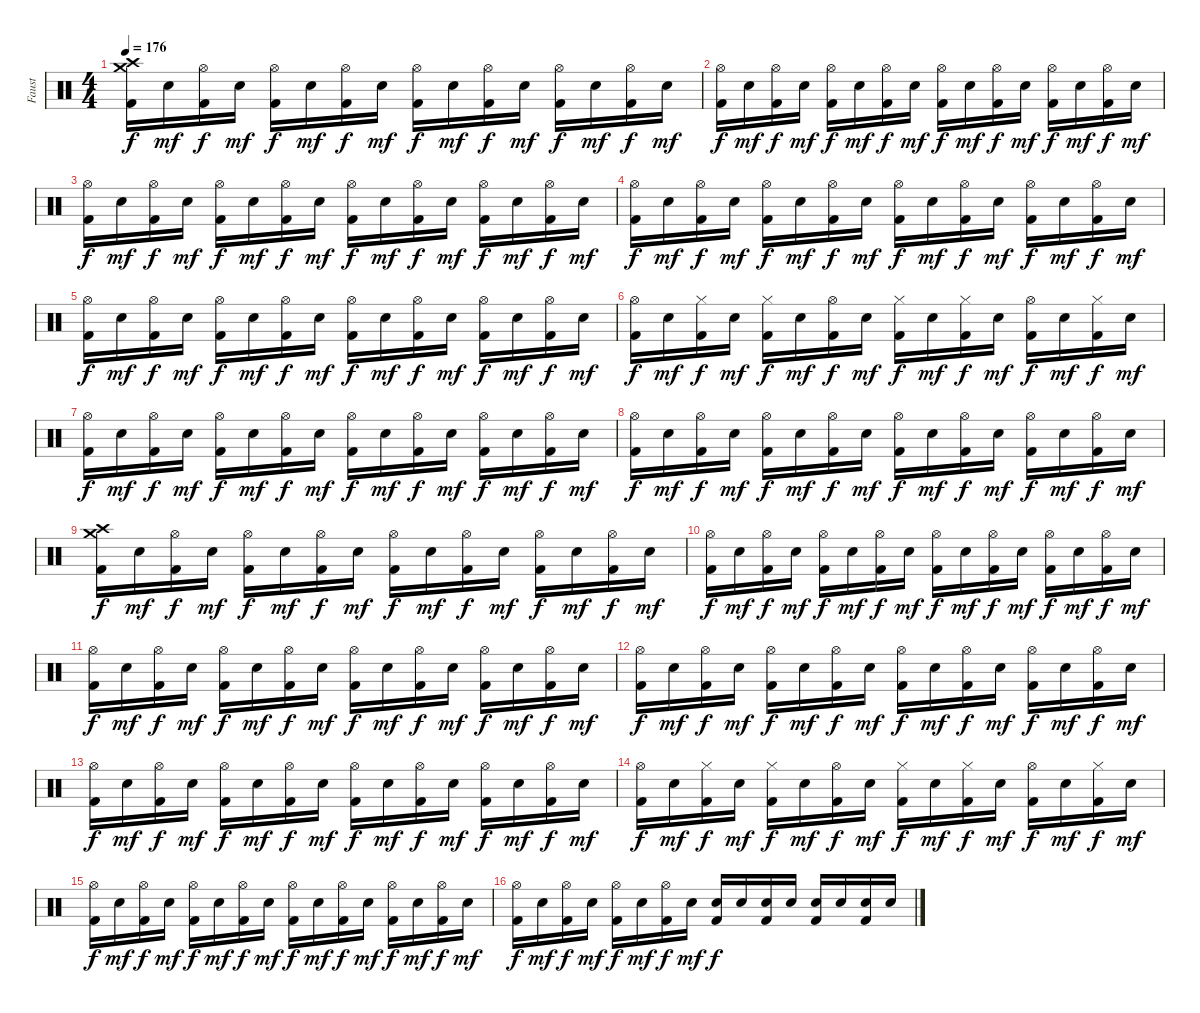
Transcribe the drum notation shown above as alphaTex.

\track ("Faust" "Faust") {instrument percussion}
\staff {score}
\articulation defaults
\ts (4 4)
\tempo 176
\clef neutral
\ks c
("Crash high (hit)" "Crash medium (hit)" "Kick (hit) 2").16{dy f} "Electric Snare (hit)".16{dy mf} ("Hi-Hat (open)" "Kick (hit) 2").16{dy f} "Electric Snare (hit)".16{dy mf} ("Hi-Hat (open)" "Kick (hit) 2").16{dy f} "Electric Snare (hit)".16{dy mf} ("Hi-Hat (open)" "Kick (hit) 2").16{dy f} "Electric Snare (hit)".16{dy mf} ("Hi-Hat (open)" "Kick (hit) 2").16{dy f} "Electric Snare (hit)".16{dy mf} ("Hi-Hat (open)" "Kick (hit) 2").16{dy f} "Electric Snare (hit)".16{dy mf} ("Hi-Hat (open)" "Kick (hit) 2").16{dy f} "Electric Snare (hit)".16{dy mf} ("Hi-Hat (open)" "Kick (hit) 2").16{dy f} "Electric Snare (hit)".16{dy mf} |
("Hi-Hat (open)" "Kick (hit) 2").16{dy f} "Electric Snare (hit)".16{dy mf} ("Hi-Hat (open)" "Kick (hit) 2").16{dy f} "Electric Snare (hit)".16{dy mf} ("Hi-Hat (open)" "Kick (hit) 2").16{dy f} "Electric Snare (hit)".16{dy mf} ("Hi-Hat (open)" "Kick (hit) 2").16{dy f} "Electric Snare (hit)".16{dy mf} ("Hi-Hat (open)" "Kick (hit) 2").16{dy f} "Electric Snare (hit)".16{dy mf} ("Hi-Hat (open)" "Kick (hit) 2").16{dy f} "Electric Snare (hit)".16{dy mf} ("Hi-Hat (open)" "Kick (hit) 2").16{dy f} "Electric Snare (hit)".16{dy mf} ("Hi-Hat (open)" "Kick (hit) 2").16{dy f} "Electric Snare (hit)".16{dy mf} |
("Hi-Hat (open)" "Kick (hit) 2").16{dy f} "Electric Snare (hit)".16{dy mf} ("Hi-Hat (open)" "Kick (hit) 2").16{dy f} "Electric Snare (hit)".16{dy mf} ("Hi-Hat (open)" "Kick (hit) 2").16{dy f} "Electric Snare (hit)".16{dy mf} ("Hi-Hat (open)" "Kick (hit) 2").16{dy f} "Electric Snare (hit)".16{dy mf} ("Hi-Hat (open)" "Kick (hit) 2").16{dy f} "Electric Snare (hit)".16{dy mf} ("Hi-Hat (open)" "Kick (hit) 2").16{dy f} "Electric Snare (hit)".16{dy mf} ("Hi-Hat (open)" "Kick (hit) 2").16{dy f} "Electric Snare (hit)".16{dy mf} ("Hi-Hat (open)" "Kick (hit) 2").16{dy f} "Electric Snare (hit)".16{dy mf} |
("Hi-Hat (open)" "Kick (hit) 2").16{dy f} "Electric Snare (hit)".16{dy mf} ("Hi-Hat (open)" "Kick (hit) 2").16{dy f} "Electric Snare (hit)".16{dy mf} ("Hi-Hat (open)" "Kick (hit) 2").16{dy f} "Electric Snare (hit)".16{dy mf} ("Hi-Hat (open)" "Kick (hit) 2").16{dy f} "Electric Snare (hit)".16{dy mf} ("Hi-Hat (open)" "Kick (hit) 2").16{dy f} "Electric Snare (hit)".16{dy mf} ("Hi-Hat (open)" "Kick (hit) 2").16{dy f} "Electric Snare (hit)".16{dy mf} ("Hi-Hat (open)" "Kick (hit) 2").16{dy f} "Electric Snare (hit)".16{dy mf} ("Hi-Hat (open)" "Kick (hit) 2").16{dy f} "Electric Snare (hit)".16{dy mf} |
("Hi-Hat (open)" "Kick (hit) 2").16{dy f} "Electric Snare (hit)".16{dy mf} ("Hi-Hat (open)" "Kick (hit) 2").16{dy f} "Electric Snare (hit)".16{dy mf} ("Hi-Hat (open)" "Kick (hit) 2").16{dy f} "Electric Snare (hit)".16{dy mf} ("Hi-Hat (open)" "Kick (hit) 2").16{dy f} "Electric Snare (hit)".16{dy mf} ("Hi-Hat (open)" "Kick (hit) 2").16{dy f} "Electric Snare (hit)".16{dy mf} ("Hi-Hat (open)" "Kick (hit) 2").16{dy f} "Electric Snare (hit)".16{dy mf} ("Hi-Hat (open)" "Kick (hit) 2").16{dy f} "Electric Snare (hit)".16{dy mf} ("Hi-Hat (open)" "Kick (hit) 2").16{dy f} "Electric Snare (hit)".16{dy mf} |
("Hi-Hat (open)" "Kick (hit) 2").16{dy f} "Electric Snare (hit)".16{dy mf} ("Hi-Hat (closed)" "Kick (hit) 2").16{dy f} "Electric Snare (hit)".16{dy mf} ("Hi-Hat (closed)" "Kick (hit) 2").16{dy f} "Electric Snare (hit)".16{dy mf} ("Hi-Hat (open)" "Kick (hit) 2").16{dy f} "Electric Snare (hit)".16{dy mf} ("Hi-Hat (closed)" "Kick (hit) 2").16{dy f} "Electric Snare (hit)".16{dy mf} ("Hi-Hat (closed)" "Kick (hit) 2").16{dy f} "Electric Snare (hit)".16{dy mf} ("Hi-Hat (open)" "Kick (hit) 2").16{dy f} "Electric Snare (hit)".16{dy mf} ("Hi-Hat (closed)" "Kick (hit) 2").16{dy f} "Electric Snare (hit)".16{dy mf} |
("Hi-Hat (open)" "Kick (hit) 2").16{dy f} "Electric Snare (hit)".16{dy mf} ("Hi-Hat (open)" "Kick (hit) 2").16{dy f} "Electric Snare (hit)".16{dy mf} ("Hi-Hat (open)" "Kick (hit) 2").16{dy f} "Electric Snare (hit)".16{dy mf} ("Hi-Hat (open)" "Kick (hit) 2").16{dy f} "Electric Snare (hit)".16{dy mf} ("Hi-Hat (open)" "Kick (hit) 2").16{dy f} "Electric Snare (hit)".16{dy mf} ("Hi-Hat (open)" "Kick (hit) 2").16{dy f} "Electric Snare (hit)".16{dy mf} ("Hi-Hat (open)" "Kick (hit) 2").16{dy f} "Electric Snare (hit)".16{dy mf} ("Hi-Hat (open)" "Kick (hit) 2").16{dy f} "Electric Snare (hit)".16{dy mf} |
("Hi-Hat (open)" "Kick (hit) 2").16{dy f} "Electric Snare (hit)".16{dy mf} ("Hi-Hat (open)" "Kick (hit) 2").16{dy f} "Electric Snare (hit)".16{dy mf} ("Hi-Hat (open)" "Kick (hit) 2").16{dy f} "Electric Snare (hit)".16{dy mf} ("Hi-Hat (open)" "Kick (hit) 2").16{dy f} "Electric Snare (hit)".16{dy mf} ("Hi-Hat (open)" "Kick (hit) 2").16{dy f} "Electric Snare (hit)".16{dy mf} ("Hi-Hat (open)" "Kick (hit) 2").16{dy f} "Electric Snare (hit)".16{dy mf} ("Hi-Hat (open)" "Kick (hit) 2").16{dy f} "Electric Snare (hit)".16{dy mf} ("Hi-Hat (open)" "Kick (hit) 2").16{dy f} "Electric Snare (hit)".16{dy mf} |
("Crash high (hit)" "Crash medium (hit)" "Kick (hit) 2").16{dy f} "Electric Snare (hit)".16{dy mf} ("Hi-Hat (open)" "Kick (hit) 2").16{dy f} "Electric Snare (hit)".16{dy mf} ("Hi-Hat (open)" "Kick (hit) 2").16{dy f} "Electric Snare (hit)".16{dy mf} ("Hi-Hat (open)" "Kick (hit) 2").16{dy f} "Electric Snare (hit)".16{dy mf} ("Hi-Hat (open)" "Kick (hit) 2").16{dy f} "Electric Snare (hit)".16{dy mf} ("Hi-Hat (open)" "Kick (hit) 2").16{dy f} "Electric Snare (hit)".16{dy mf} ("Hi-Hat (open)" "Kick (hit) 2").16{dy f} "Electric Snare (hit)".16{dy mf} ("Hi-Hat (open)" "Kick (hit) 2").16{dy f} "Electric Snare (hit)".16{dy mf} |
("Hi-Hat (open)" "Kick (hit) 2").16{dy f} "Electric Snare (hit)".16{dy mf} ("Hi-Hat (open)" "Kick (hit) 2").16{dy f} "Electric Snare (hit)".16{dy mf} ("Hi-Hat (open)" "Kick (hit) 2").16{dy f} "Electric Snare (hit)".16{dy mf} ("Hi-Hat (open)" "Kick (hit) 2").16{dy f} "Electric Snare (hit)".16{dy mf} ("Hi-Hat (open)" "Kick (hit) 2").16{dy f} "Electric Snare (hit)".16{dy mf} ("Hi-Hat (open)" "Kick (hit) 2").16{dy f} "Electric Snare (hit)".16{dy mf} ("Hi-Hat (open)" "Kick (hit) 2").16{dy f} "Electric Snare (hit)".16{dy mf} ("Hi-Hat (open)" "Kick (hit) 2").16{dy f} "Electric Snare (hit)".16{dy mf} |
("Hi-Hat (open)" "Kick (hit) 2").16{dy f} "Electric Snare (hit)".16{dy mf} ("Hi-Hat (open)" "Kick (hit) 2").16{dy f} "Electric Snare (hit)".16{dy mf} ("Hi-Hat (open)" "Kick (hit) 2").16{dy f} "Electric Snare (hit)".16{dy mf} ("Hi-Hat (open)" "Kick (hit) 2").16{dy f} "Electric Snare (hit)".16{dy mf} ("Hi-Hat (open)" "Kick (hit) 2").16{dy f} "Electric Snare (hit)".16{dy mf} ("Hi-Hat (open)" "Kick (hit) 2").16{dy f} "Electric Snare (hit)".16{dy mf} ("Hi-Hat (open)" "Kick (hit) 2").16{dy f} "Electric Snare (hit)".16{dy mf} ("Hi-Hat (open)" "Kick (hit) 2").16{dy f} "Electric Snare (hit)".16{dy mf} |
("Hi-Hat (open)" "Kick (hit) 2").16{dy f} "Electric Snare (hit)".16{dy mf} ("Hi-Hat (open)" "Kick (hit) 2").16{dy f} "Electric Snare (hit)".16{dy mf} ("Hi-Hat (open)" "Kick (hit) 2").16{dy f} "Electric Snare (hit)".16{dy mf} ("Hi-Hat (open)" "Kick (hit) 2").16{dy f} "Electric Snare (hit)".16{dy mf} ("Hi-Hat (open)" "Kick (hit) 2").16{dy f} "Electric Snare (hit)".16{dy mf} ("Hi-Hat (open)" "Kick (hit) 2").16{dy f} "Electric Snare (hit)".16{dy mf} ("Hi-Hat (open)" "Kick (hit) 2").16{dy f} "Electric Snare (hit)".16{dy mf} ("Hi-Hat (open)" "Kick (hit) 2").16{dy f} "Electric Snare (hit)".16{dy mf} |
("Hi-Hat (open)" "Kick (hit) 2").16{dy f} "Electric Snare (hit)".16{dy mf} ("Hi-Hat (open)" "Kick (hit) 2").16{dy f} "Electric Snare (hit)".16{dy mf} ("Hi-Hat (open)" "Kick (hit) 2").16{dy f} "Electric Snare (hit)".16{dy mf} ("Hi-Hat (open)" "Kick (hit) 2").16{dy f} "Electric Snare (hit)".16{dy mf} ("Hi-Hat (open)" "Kick (hit) 2").16{dy f} "Electric Snare (hit)".16{dy mf} ("Hi-Hat (open)" "Kick (hit) 2").16{dy f} "Electric Snare (hit)".16{dy mf} ("Hi-Hat (open)" "Kick (hit) 2").16{dy f} "Electric Snare (hit)".16{dy mf} ("Hi-Hat (open)" "Kick (hit) 2").16{dy f} "Electric Snare (hit)".16{dy mf} |
("Hi-Hat (open)" "Kick (hit) 2").16{dy f} "Electric Snare (hit)".16{dy mf} ("Hi-Hat (closed)" "Kick (hit) 2").16{dy f} "Electric Snare (hit)".16{dy mf} ("Hi-Hat (closed)" "Kick (hit) 2").16{dy f} "Electric Snare (hit)".16{dy mf} ("Hi-Hat (open)" "Kick (hit) 2").16{dy f} "Electric Snare (hit)".16{dy mf} ("Hi-Hat (closed)" "Kick (hit) 2").16{dy f} "Electric Snare (hit)".16{dy mf} ("Hi-Hat (closed)" "Kick (hit) 2").16{dy f} "Electric Snare (hit)".16{dy mf} ("Hi-Hat (open)" "Kick (hit) 2").16{dy f} "Electric Snare (hit)".16{dy mf} ("Hi-Hat (closed)" "Kick (hit) 2").16{dy f} "Electric Snare (hit)".16{dy mf} |
("Hi-Hat (open)" "Kick (hit) 2").16{dy f} "Electric Snare (hit)".16{dy mf} ("Hi-Hat (open)" "Kick (hit) 2").16{dy f} "Electric Snare (hit)".16{dy mf} ("Hi-Hat (open)" "Kick (hit) 2").16{dy f} "Electric Snare (hit)".16{dy mf} ("Hi-Hat (open)" "Kick (hit) 2").16{dy f} "Electric Snare (hit)".16{dy mf} ("Hi-Hat (open)" "Kick (hit) 2").16{dy f} "Electric Snare (hit)".16{dy mf} ("Hi-Hat (open)" "Kick (hit) 2").16{dy f} "Electric Snare (hit)".16{dy mf} ("Hi-Hat (open)" "Kick (hit) 2").16{dy f} "Electric Snare (hit)".16{dy mf} ("Hi-Hat (open)" "Kick (hit) 2").16{dy f} "Electric Snare (hit)".16{dy mf} |
("Hi-Hat (open)" "Kick (hit) 2").16{dy f} "Electric Snare (hit)".16{dy mf} ("Hi-Hat (open)" "Kick (hit) 2").16{dy f} "Electric Snare (hit)".16{dy mf} ("Hi-Hat (open)" "Kick (hit) 2").16{dy f} "Electric Snare (hit)".16{dy mf} ("Hi-Hat (open)" "Kick (hit) 2").16{dy f} "Electric Snare (hit)".16{dy mf} ("Electric Snare (hit)" "Kick (hit) 2").16{dy f} "Electric Snare (hit)".16 ("Electric Snare (hit)" "Kick (hit) 2").16 "Electric Snare (hit)".16 ("Electric Snare (hit)" "Kick (hit) 2").16 "Electric Snare (hit)".16 ("Electric Snare (hit)" "Kick (hit) 2").16 "Electric Snare (hit)".16
